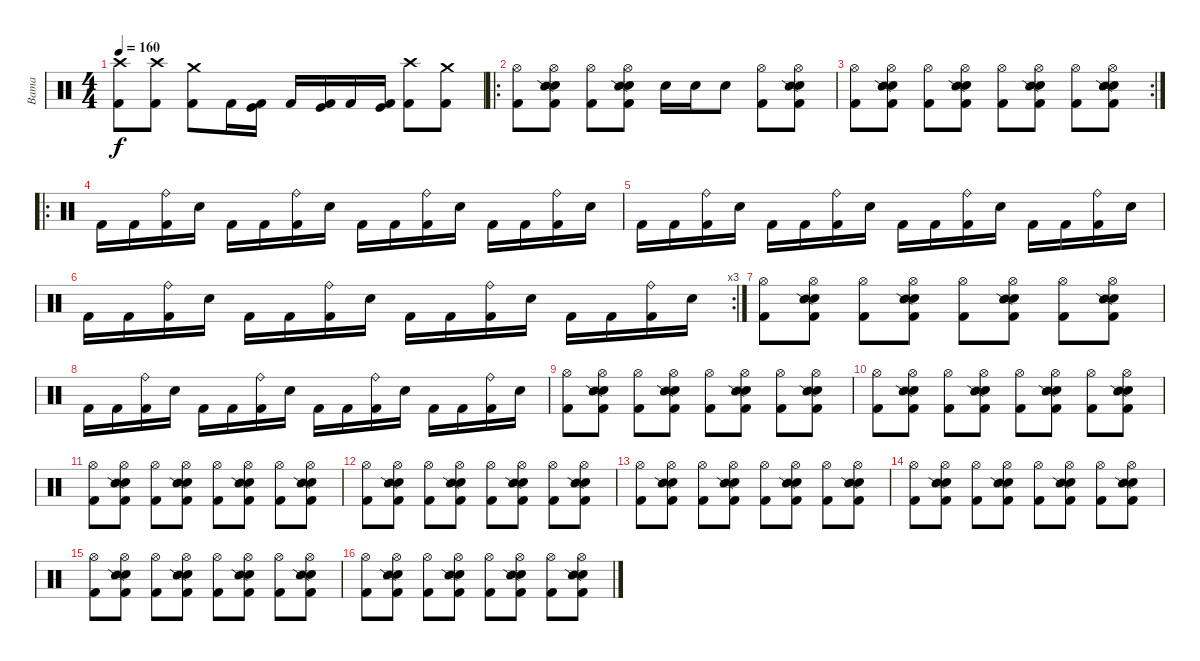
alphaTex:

\track ("Bama" "Bama") {instrument percussion}
\staff {score}
\articulation defaults
\ts (4 4)
\tempo 160
\clef neutral
\ks c
("Crash high (hit)" "Kick (hit) 2").8{dy f} ("Crash high (hit)" "Kick (hit) 2").8 ("Crash medium (hit)" "Kick (hit) 2").8 "Kick (hit) 2".16 ("Kick (hit)" "Kick (hit) 2").16 "Kick (hit) 2".16 ("Kick (hit)" "Kick (hit) 2").16 "Kick (hit) 2".16 ("Kick (hit)" "Kick (hit) 2").16 ("Crash high (hit)" "Kick (hit) 2").8 ("Crash medium (hit)" "Kick (hit) 2").8 |
\ro
("Hi-Hat (open)" "Kick (hit) 2").8 ("Hi-Hat (open)" "Electric Snare (hit)" "Snare (side stick) 2" "Kick (hit) 2").8 ("Hi-Hat (open)" "Kick (hit) 2").8 ("Hi-Hat (open)" "Electric Snare (hit)" "Snare (side stick) 2" "Kick (hit) 2").8 "Electric Snare (hit)".16 "Electric Snare (hit)".16 "Electric Snare (hit)".8 ("Hi-Hat (open)" "Kick (hit) 2").8 ("Hi-Hat (open)" "Electric Snare (hit)" "Snare (side stick) 2" "Kick (hit) 2").8 |
\rc 2
("Hi-Hat (open)" "Kick (hit) 2").8 ("Hi-Hat (open)" "Electric Snare (hit)" "Snare (side stick) 2" "Kick (hit) 2").8 ("Hi-Hat (open)" "Kick (hit) 2").8 ("Hi-Hat (open)" "Electric Snare (hit)" "Snare (side stick) 2" "Kick (hit) 2").8 ("Hi-Hat (open)" "Kick (hit) 2").8 ("Hi-Hat (open)" "Electric Snare (hit)" "Snare (side stick) 2" "Kick (hit) 2").8 ("Hi-Hat (open)" "Kick (hit) 2").8 ("Hi-Hat (open)" "Electric Snare (hit)" "Snare (side stick) 2" "Kick (hit) 2").8 |
\ro "Kick (hit) 2".16 "Kick (hit) 2".16
("Ride (bell)" "Kick (hit) 2").16 "Electric Snare (hit)".16 "Kick (hit) 2".16 "Kick (hit) 2".16 ("Ride (bell)" "Kick (hit) 2").16 "Electric Snare (hit)".16 "Kick (hit) 2".16 "Kick (hit) 2".16 ("Ride (bell)" "Kick (hit) 2").16 "Electric Snare (hit)".16 "Kick (hit) 2".16 "Kick (hit) 2".16 ("Ride (bell)" "Kick (hit) 2").16 "Electric Snare (hit)".16 |
"Kick (hit) 2".16 "Kick (hit) 2".16 ("Ride (bell)" "Kick (hit) 2").16 "Electric Snare (hit)".16 "Kick (hit) 2".16 "Kick (hit) 2".16 ("Ride (bell)" "Kick (hit) 2").16 "Electric Snare (hit)".16 "Kick (hit) 2".16 "Kick (hit) 2".16 ("Ride (bell)" "Kick (hit) 2").16 "Electric Snare (hit)".16 "Kick (hit) 2".16 "Kick (hit) 2".16 ("Ride (bell)" "Kick (hit) 2").16 "Electric Snare (hit)".16 |
\rc 3 "Kick (hit) 2".16 "Kick (hit) 2".16
("Ride (bell)" "Kick (hit) 2").16 "Electric Snare (hit)".16 "Kick (hit) 2".16 "Kick (hit) 2".16 ("Ride (bell)" "Kick (hit) 2").16 "Electric Snare (hit)".16 "Kick (hit) 2".16 "Kick (hit) 2".16 ("Ride (bell)" "Kick (hit) 2").16 "Electric Snare (hit)".16 "Kick (hit) 2".16 "Kick (hit) 2".16 ("Ride (bell)" "Kick (hit) 2").16 "Electric Snare (hit)".16 |
("Hi-Hat (open)" "Kick (hit) 2").8 ("Hi-Hat (open)" "Electric Snare (hit)" "Snare (side stick) 2" "Kick (hit) 2").8 ("Hi-Hat (open)" "Kick (hit) 2").8 ("Hi-Hat (open)" "Electric Snare (hit)" "Snare (side stick) 2" "Kick (hit) 2").8 ("Hi-Hat (open)" "Kick (hit) 2").8 ("Hi-Hat (open)" "Electric Snare (hit)" "Snare (side stick) 2" "Kick (hit) 2").8 ("Hi-Hat (open)" "Kick (hit) 2").8 ("Hi-Hat (open)" "Electric Snare (hit)" "Snare (side stick) 2" "Kick (hit) 2").8 |
"Kick (hit) 2".16 "Kick (hit) 2".16 ("Ride (bell)" "Kick (hit) 2").16 "Electric Snare (hit)".16 "Kick (hit) 2".16 "Kick (hit) 2".16 ("Ride (bell)" "Kick (hit) 2").16 "Electric Snare (hit)".16 "Kick (hit) 2".16 "Kick (hit) 2".16 ("Ride (bell)" "Kick (hit) 2").16 "Electric Snare (hit)".16 "Kick (hit) 2".16 "Kick (hit) 2".16 ("Ride (bell)" "Kick (hit) 2").16 "Electric Snare (hit)".16 |
("Hi-Hat (open)" "Kick (hit) 2").8 ("Hi-Hat (open)" "Electric Snare (hit)" "Snare (side stick) 2" "Kick (hit) 2").8 ("Hi-Hat (open)" "Kick (hit) 2").8 ("Hi-Hat (open)" "Electric Snare (hit)" "Snare (side stick) 2" "Kick (hit) 2").8 ("Hi-Hat (open)" "Kick (hit) 2").8 ("Hi-Hat (open)" "Electric Snare (hit)" "Snare (side stick) 2" "Kick (hit) 2").8 ("Hi-Hat (open)" "Kick (hit) 2").8 ("Hi-Hat (open)" "Electric Snare (hit)" "Snare (side stick) 2" "Kick (hit) 2").8 |
("Hi-Hat (open)" "Kick (hit) 2").8 ("Hi-Hat (open)" "Electric Snare (hit)" "Snare (side stick) 2" "Kick (hit) 2").8 ("Hi-Hat (open)" "Kick (hit) 2").8 ("Hi-Hat (open)" "Electric Snare (hit)" "Snare (side stick) 2" "Kick (hit) 2").8 ("Hi-Hat (open)" "Kick (hit) 2").8 ("Hi-Hat (open)" "Electric Snare (hit)" "Snare (side stick) 2" "Kick (hit) 2").8 ("Hi-Hat (open)" "Kick (hit) 2").8 ("Hi-Hat (open)" "Electric Snare (hit)" "Snare (side stick) 2" "Kick (hit) 2").8 |
("Hi-Hat (open)" "Kick (hit) 2").8 ("Hi-Hat (open)" "Electric Snare (hit)" "Snare (side stick) 2" "Kick (hit) 2").8 ("Hi-Hat (open)" "Kick (hit) 2").8 ("Hi-Hat (open)" "Electric Snare (hit)" "Snare (side stick) 2" "Kick (hit) 2").8 ("Hi-Hat (open)" "Kick (hit) 2").8 ("Hi-Hat (open)" "Electric Snare (hit)" "Snare (side stick) 2" "Kick (hit) 2").8 ("Hi-Hat (open)" "Kick (hit) 2").8 ("Hi-Hat (open)" "Electric Snare (hit)" "Snare (side stick) 2" "Kick (hit) 2").8 |
("Hi-Hat (open)" "Kick (hit) 2").8 ("Hi-Hat (open)" "Electric Snare (hit)" "Snare (side stick) 2" "Kick (hit) 2").8 ("Hi-Hat (open)" "Kick (hit) 2").8 ("Hi-Hat (open)" "Electric Snare (hit)" "Snare (side stick) 2" "Kick (hit) 2").8 ("Hi-Hat (open)" "Kick (hit) 2").8 ("Hi-Hat (open)" "Electric Snare (hit)" "Snare (side stick) 2" "Kick (hit) 2").8 ("Hi-Hat (open)" "Kick (hit) 2").8 ("Hi-Hat (open)" "Electric Snare (hit)" "Snare (side stick) 2" "Kick (hit) 2").8 |
("Hi-Hat (open)" "Kick (hit) 2").8 ("Hi-Hat (open)" "Electric Snare (hit)" "Snare (side stick) 2" "Kick (hit) 2").8 ("Hi-Hat (open)" "Kick (hit) 2").8 ("Hi-Hat (open)" "Electric Snare (hit)" "Snare (side stick) 2" "Kick (hit) 2").8 ("Hi-Hat (open)" "Kick (hit) 2").8 ("Hi-Hat (open)" "Electric Snare (hit)" "Snare (side stick) 2" "Kick (hit) 2").8 ("Hi-Hat (open)" "Kick (hit) 2").8 ("Hi-Hat (open)" "Electric Snare (hit)" "Snare (side stick) 2" "Kick (hit) 2").8 |
("Hi-Hat (open)" "Kick (hit) 2").8 ("Hi-Hat (open)" "Electric Snare (hit)" "Snare (side stick) 2" "Kick (hit) 2").8 ("Hi-Hat (open)" "Kick (hit) 2").8 ("Hi-Hat (open)" "Electric Snare (hit)" "Snare (side stick) 2" "Kick (hit) 2").8 ("Hi-Hat (open)" "Kick (hit) 2").8 ("Hi-Hat (open)" "Electric Snare (hit)" "Snare (side stick) 2" "Kick (hit) 2").8 ("Hi-Hat (open)" "Kick (hit) 2").8 ("Hi-Hat (open)" "Electric Snare (hit)" "Snare (side stick) 2" "Kick (hit) 2").8 |
("Hi-Hat (open)" "Kick (hit) 2").8 ("Hi-Hat (open)" "Electric Snare (hit)" "Snare (side stick) 2" "Kick (hit) 2").8 ("Hi-Hat (open)" "Kick (hit) 2").8 ("Hi-Hat (open)" "Electric Snare (hit)" "Snare (side stick) 2" "Kick (hit) 2").8 ("Hi-Hat (open)" "Kick (hit) 2").8 ("Hi-Hat (open)" "Electric Snare (hit)" "Snare (side stick) 2" "Kick (hit) 2").8 ("Hi-Hat (open)" "Kick (hit) 2").8 ("Hi-Hat (open)" "Electric Snare (hit)" "Snare (side stick) 2" "Kick (hit) 2").8 |
("Hi-Hat (open)" "Kick (hit) 2").8 ("Hi-Hat (open)" "Electric Snare (hit)" "Snare (side stick) 2" "Kick (hit) 2").8 ("Hi-Hat (open)" "Kick (hit) 2").8 ("Hi-Hat (open)" "Electric Snare (hit)" "Snare (side stick) 2" "Kick (hit) 2").8 ("Hi-Hat (open)" "Kick (hit) 2").8 ("Hi-Hat (open)" "Electric Snare (hit)" "Snare (side stick) 2" "Kick (hit) 2").8 ("Hi-Hat (open)" "Kick (hit) 2").8 ("Hi-Hat (open)" "Electric Snare (hit)" "Snare (side stick) 2" "Kick (hit) 2").8
